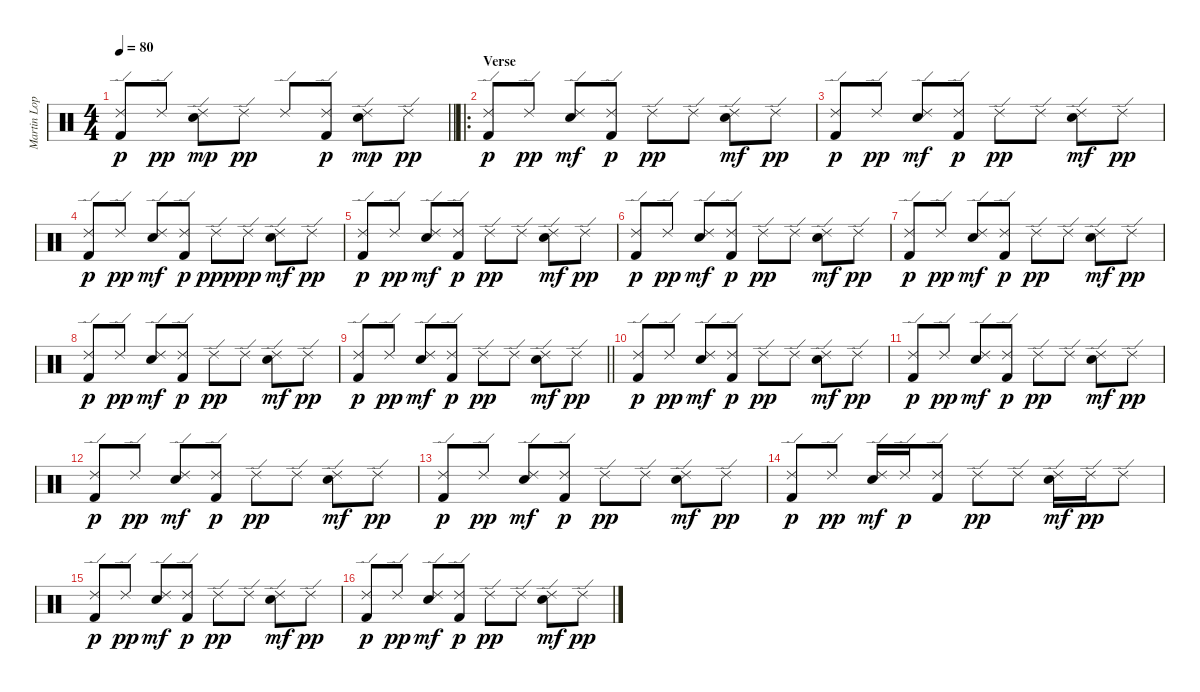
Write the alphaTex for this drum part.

\track ("Martin Lopez" "Martin Lop") {instrument percussion}
\staff {score}
\articulation defaults
\ts (4 4)
\tempo 80
\clef neutral
\barLineRight lightlight
\ks c
("Ride (edge) 2" "Kick (hit) 2").8{dy p} "Ride (edge) 2".8{dy pp} ("Ride (edge) 2" "Snare (hit) 2").8{dy mp} "Ride (edge) 2".8{dy pp} "Ride (edge) 2".8 ("Ride (edge) 2" "Kick (hit) 2").8{dy p} ("Ride (edge) 2" "Snare (hit) 2").8{dy mp} "Ride (edge) 2".8{dy pp} |
\ro
\section ("" "Verse")
("Ride (edge) 2" "Kick (hit) 2").8{dy p} "Ride (edge) 2".8{dy pp} ("Ride (edge) 2" "Snare (hit) 2").8{dy mf} ("Ride (edge) 2" "Kick (hit) 2").8{dy p} "Ride (edge) 2".8{dy pp} "Ride (edge) 2".8 ("Ride (edge) 2" "Snare (hit) 2").8{dy mf} "Ride (edge) 2".8{dy pp} |
("Ride (edge) 2" "Kick (hit) 2").8{dy p} "Ride (edge) 2".8{dy pp} ("Ride (edge) 2" "Snare (hit) 2").8{dy mf} ("Ride (edge) 2" "Kick (hit) 2").8{dy p} "Ride (edge) 2".8{dy pp} "Ride (edge) 2".8 ("Ride (edge) 2" "Snare (hit) 2").8{dy mf} "Ride (edge) 2".8{dy pp} |
("Ride (edge) 2" "Kick (hit) 2").8{dy p} "Ride (edge) 2".8{dy pp} ("Ride (edge) 2" "Snare (hit) 2").8{dy mf} ("Ride (edge) 2" "Kick (hit) 2").8{dy p} "Ride (edge) 2".8{dy ppp} "Ride (edge) 2".8{dy pp} ("Ride (edge) 2" "Snare (hit) 2").8{dy mf} "Ride (edge) 2".8{dy pp} |
("Ride (edge) 2" "Kick (hit) 2").8{dy p} "Ride (edge) 2".8{dy pp} ("Ride (edge) 2" "Snare (hit) 2").8{dy mf} ("Ride (edge) 2" "Kick (hit) 2").8{dy p} "Ride (edge) 2".8{dy pp} "Ride (edge) 2".8 ("Ride (edge) 2" "Snare (hit) 2").8{dy mf} "Ride (edge) 2".8{dy pp} |
("Ride (edge) 2" "Kick (hit) 2").8{dy p} "Ride (edge) 2".8{dy pp} ("Ride (edge) 2" "Snare (hit) 2").8{dy mf} ("Ride (edge) 2" "Kick (hit) 2").8{dy p} "Ride (edge) 2".8{dy pp} "Ride (edge) 2".8 ("Ride (edge) 2" "Snare (hit) 2").8{dy mf} "Ride (edge) 2".8{dy pp} |
("Ride (edge) 2" "Kick (hit) 2").8{dy p} "Ride (edge) 2".8{dy pp} ("Ride (edge) 2" "Snare (hit) 2").8{dy mf} ("Ride (edge) 2" "Kick (hit) 2").8{dy p} "Ride (edge) 2".8{dy pp} "Ride (edge) 2".8 ("Ride (edge) 2" "Snare (hit) 2").8{dy mf} "Ride (edge) 2".8{dy pp} |
("Ride (edge) 2" "Kick (hit) 2").8{dy p} "Ride (edge) 2".8{dy pp} ("Ride (edge) 2" "Snare (hit) 2").8{dy mf} ("Ride (edge) 2" "Kick (hit) 2").8{dy p} "Ride (edge) 2".8{dy pp} "Ride (edge) 2".8 ("Ride (edge) 2" "Snare (hit) 2").8{dy mf} "Ride (edge) 2".8{dy pp} |
\barLineRight lightlight
("Ride (edge) 2" "Kick (hit) 2").8{dy p} "Ride (edge) 2".8{dy pp} ("Ride (edge) 2" "Snare (hit) 2").8{dy mf} ("Ride (edge) 2" "Kick (hit) 2").8{dy p} "Ride (edge) 2".8{dy pp} "Ride (edge) 2".8 ("Ride (edge) 2" "Snare (hit) 2").8{dy mf} "Ride (edge) 2".8{dy pp} |
\section ("" "")
("Ride (edge) 2" "Kick (hit) 2").8{dy p} "Ride (edge) 2".8{dy pp} ("Ride (edge) 2" "Snare (hit) 2").8{dy mf} ("Ride (edge) 2" "Kick (hit) 2").8{dy p} "Ride (edge) 2".8{dy pp} "Ride (edge) 2".8 ("Ride (edge) 2" "Snare (hit) 2").8{dy mf} "Ride (edge) 2".8{dy pp} |
("Ride (edge) 2" "Kick (hit) 2").8{dy p} "Ride (edge) 2".8{dy pp} ("Ride (edge) 2" "Snare (hit) 2").8{dy mf} ("Ride (edge) 2" "Kick (hit) 2").8{dy p} "Ride (edge) 2".8{dy pp} "Ride (edge) 2".8 ("Ride (edge) 2" "Snare (hit) 2").8{dy mf} "Ride (edge) 2".8{dy pp} |
("Ride (edge) 2" "Kick (hit) 2").8{dy p} "Ride (edge) 2".8{dy pp} ("Ride (edge) 2" "Snare (hit) 2").8{dy mf} ("Ride (edge) 2" "Kick (hit) 2").8{dy p} "Ride (edge) 2".8{dy pp} "Ride (edge) 2".8 ("Ride (edge) 2" "Snare (hit) 2").8{dy mf} "Ride (edge) 2".8{dy pp} |
("Ride (edge) 2" "Kick (hit) 2").8{dy p} "Ride (edge) 2".8{dy pp} ("Ride (edge) 2" "Snare (hit) 2").8{dy mf} ("Ride (edge) 2" "Kick (hit) 2").8{dy p} "Ride (edge) 2".8{dy pp} "Ride (edge) 2".8 ("Ride (edge) 2" "Snare (hit) 2").8{dy mf} "Ride (edge) 2".8{dy pp} |
("Ride (edge) 2" "Kick (hit) 2").8{dy p} "Ride (edge) 2".8{dy pp} ("Ride (edge) 2" "Snare (hit) 2").16{dy mf} "Ride (edge) 2".16{dy p} ("Ride (edge) 2" "Kick (hit) 2").8 "Ride (edge) 2".8{dy pp} "Ride (edge) 2".8 ("Ride (edge) 2" "Snare (hit) 2").16{dy mf} "Ride (edge) 2".16{dy pp} "Ride (edge) 2".8 |
("Ride (edge) 2" "Kick (hit) 2").8{dy p} "Ride (edge) 2".8{dy pp} ("Ride (edge) 2" "Snare (hit) 2").8{dy mf} ("Ride (edge) 2" "Kick (hit) 2").8{dy p} "Ride (edge) 2".8{dy pp} "Ride (edge) 2".8 ("Ride (edge) 2" "Snare (hit) 2").8{dy mf} "Ride (edge) 2".8{dy pp} |
("Ride (edge) 2" "Kick (hit) 2").8{dy p} "Ride (edge) 2".8{dy pp} ("Ride (edge) 2" "Snare (hit) 2").8{dy mf} ("Ride (edge) 2" "Kick (hit) 2").8{dy p} "Ride (edge) 2".8{dy pp} "Ride (edge) 2".8 ("Ride (edge) 2" "Snare (hit) 2").8{dy mf} "Ride (edge) 2".8{dy pp}
